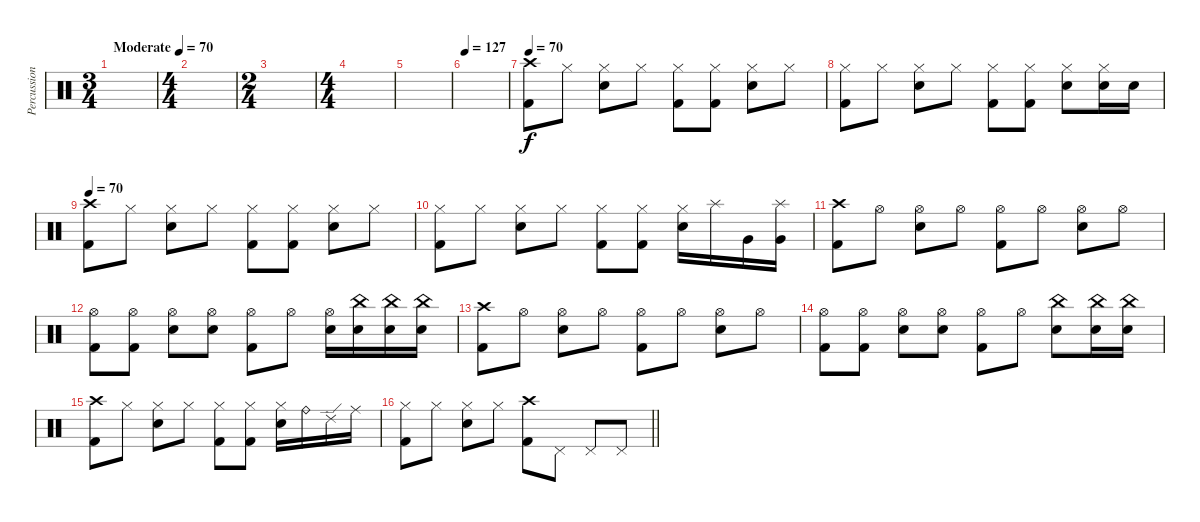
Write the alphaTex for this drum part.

\track ("Percussion" "Percussion") {instrument percussion}
\staff {score}
\articulation defaults
\ts (3 4)
\tempo (70 "Moderate")
\clef neutral
\ks c
|
\ts (4 4)
|
\ts (2 4)
|
\ts (4 4)
|
|
\tempo 127
|
\tempo 70
("Crash high (hit)" "Kick (hit) 2").8 "Hi-Hat (closed)".8 ("Hi-Hat (closed)" "Snare (hit) 2").8 "Hi-Hat (closed)".8 ("Hi-Hat (closed)" "Kick (hit) 2").8 ("Hi-Hat (closed)" "Kick (hit) 2").8 ("Hi-Hat (closed)" "Snare (hit) 2").8 "Hi-Hat (closed)".8 |
("Hi-Hat (closed)" "Kick (hit) 2").8 "Hi-Hat (closed)".8 ("Hi-Hat (closed)" "Snare (hit) 2").8 "Hi-Hat (closed)".8 ("Hi-Hat (closed)" "Kick (hit) 2").8 ("Hi-Hat (closed)" "Kick (hit) 2").8 ("Hi-Hat (closed)" "Snare (hit) 2").8 ("Hi-Hat (closed)" "Snare (hit) 2").16 "Snare (hit) 2".16 |
\tempo 70
("Crash high (hit)" "Kick (hit) 2").8 "Hi-Hat (closed)".8 ("Hi-Hat (closed)" "Snare (hit) 2").8 "Hi-Hat (closed)".8 ("Hi-Hat (closed)" "Kick (hit) 2").8 ("Hi-Hat (closed)" "Kick (hit) 2").8 ("Hi-Hat (closed)" "Snare (hit) 2").8 "Hi-Hat (closed)".8 |
("Hi-Hat (closed)" "Kick (hit) 2").8 "Hi-Hat (closed)".8 ("Hi-Hat (closed)" "Snare (hit) 2").8 "Hi-Hat (closed)".8 ("Hi-Hat (closed)" "Kick (hit) 2").8 ("Hi-Hat (closed)" "Kick (hit) 2").8 ("Hi-Hat (closed)" "Snare (hit) 2").16 "Splash (hit)".16 "Very Low Tom (hit)".16 ("Splash (hit)" "Very Low Tom (hit)").16 |
("Crash high (hit)" "Kick (hit) 2").8 "Hi-Hat (open)".8 ("Hi-Hat (open)" "Snare (hit) 2").8 "Hi-Hat (open)".8 ("Hi-Hat (open)" "Kick (hit) 2").8 "Hi-Hat (open)".8 ("Hi-Hat (open)" "Snare (hit) 2").8 "Hi-Hat (open)".8 |
("Hi-Hat (open)" "Kick (hit) 2").8 ("Hi-Hat (open)" "Kick (hit) 2").8 ("Hi-Hat (open)" "Snare (hit) 2").8 ("Hi-Hat (open)" "Snare (hit) 2").8 ("Hi-Hat (open)" "Kick (hit) 2").8 "Hi-Hat (open)".8 ("Hi-Hat (open)" "Snare (hit) 2").16 ("China (hit)" "Snare (hit) 2").16 ("China (hit)" "Snare (hit) 2").16 ("China (hit)" "Snare (hit) 2").16 |
("Crash high (hit)" "Kick (hit) 2").8 "Hi-Hat (open)".8 ("Hi-Hat (open)" "Snare (hit) 2").8 "Hi-Hat (open)".8 ("Hi-Hat (open)" "Kick (hit) 2").8 "Hi-Hat (open)".8 ("Hi-Hat (open)" "Snare (hit) 2").8 "Hi-Hat (open)".8 |
("Hi-Hat (open)" "Kick (hit) 2").8 ("Hi-Hat (open)" "Kick (hit) 2").8 ("Hi-Hat (open)" "Snare (hit) 2").8 ("Hi-Hat (open)" "Snare (hit) 2").8 ("Hi-Hat (open)" "Kick (hit) 2").8 "Hi-Hat (open)".8 ("China (hit)" "Snare (hit) 2").8 ("China (hit)" "Snare (hit) 2").16 ("China (hit)" "Snare (hit) 2").16 |
("Crash high (hit)" "Kick (hit) 2").8 "Hi-Hat (closed)".8 ("Hi-Hat (closed)" "Snare (hit) 2").8 "Hi-Hat (closed)".8 ("Hi-Hat (closed)" "Kick (hit) 2").8 ("Hi-Hat (closed)" "Kick (hit) 2").8 ("Hi-Hat (closed)" "Snare (hit) 2").16 "Ride (bell)".16 "Ride (edge) 2".16 "Ride (middle)".16 |
\barLineRight lightlight
("Hi-Hat (closed)" "Kick (hit) 2").8 "Hi-Hat (closed)".8 ("Hi-Hat (closed)" "Snare (hit) 2").8 "Hi-Hat (closed)".8 ("Crash high (hit)" "Kick (hit) 2").8 "Pedal Hi-Hat (hit)".8 "Pedal Hi-Hat (hit)".8 "Pedal Hi-Hat (hit)".8
